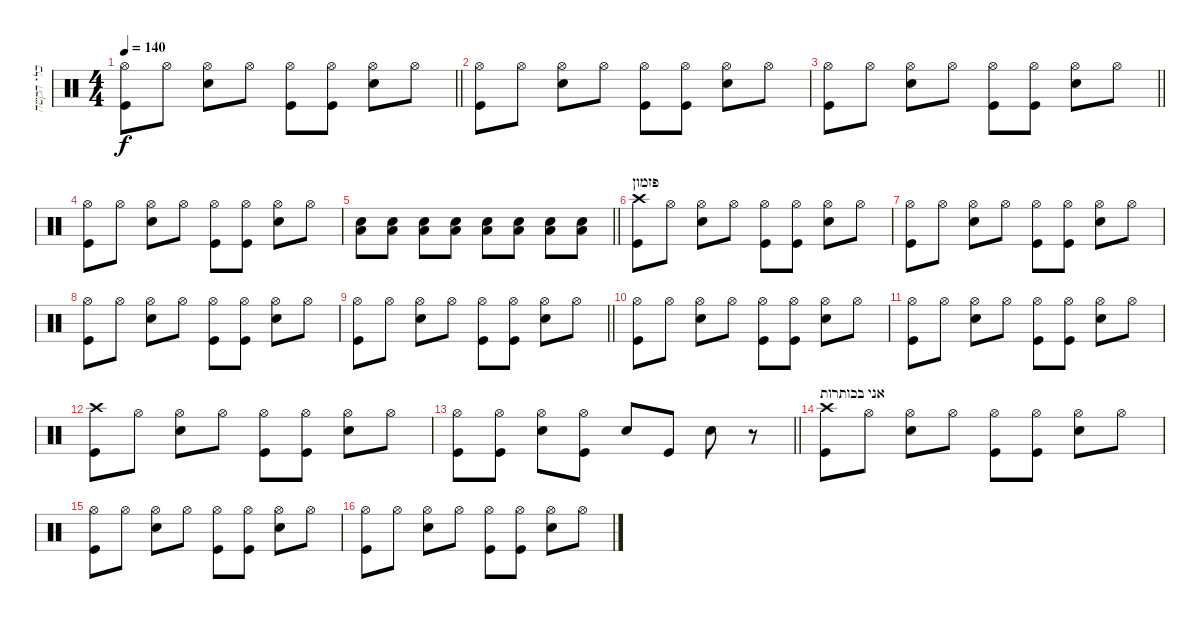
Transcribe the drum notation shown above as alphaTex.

\track ("כלי הקשה" "כלי הקשה") {instrument percussion}
\staff {score}
\articulation defaults
\ts (4 4)
\tempo 140
\clef neutral
\barLineRight lightlight
\ks c
("Kick (hit)" "Hi-Hat (open)").8{dy f} "Hi-Hat (open)".8 ("Snare (hit) 2" "Hi-Hat (open)").8 "Hi-Hat (open)".8 ("Kick (hit)" "Hi-Hat (open)").8 ("Kick (hit)" "Hi-Hat (open)").8 ("Snare (hit) 2" "Hi-Hat (open)").8 "Hi-Hat (open)".8 |
("Kick (hit)" "Hi-Hat (open)").8 "Hi-Hat (open)".8 ("Snare (hit) 2" "Hi-Hat (open)").8 "Hi-Hat (open)".8 ("Kick (hit)" "Hi-Hat (open)").8 ("Kick (hit)" "Hi-Hat (open)").8 ("Snare (hit) 2" "Hi-Hat (open)").8 "Hi-Hat (open)".8 |
\barLineRight lightlight
("Kick (hit)" "Hi-Hat (open)").8 "Hi-Hat (open)".8 ("Snare (hit) 2" "Hi-Hat (open)").8 "Hi-Hat (open)".8 ("Kick (hit)" "Hi-Hat (open)").8 ("Kick (hit)" "Hi-Hat (open)").8 ("Snare (hit) 2" "Hi-Hat (open)").8 "Hi-Hat (open)".8 |
("Kick (hit)" "Hi-Hat (open)").8 "Hi-Hat (open)".8 ("Snare (hit) 2" "Hi-Hat (open)").8 "Hi-Hat (open)".8 ("Kick (hit)" "Hi-Hat (open)").8 ("Kick (hit)" "Hi-Hat (open)").8 ("Snare (hit) 2" "Hi-Hat (open)").8 "Hi-Hat (open)".8 |
\barLineRight lightlight
("Low Floor Tom (hit)" "Snare (hit) 2").8 ("Low Floor Tom (hit)" "Snare (hit) 2").8 ("Low Floor Tom (hit)" "Snare (hit) 2").8 ("Low Floor Tom (hit)" "Snare (hit) 2").8 ("Low Floor Tom (hit)" "Snare (hit) 2").8 ("Low Floor Tom (hit)" "Snare (hit) 2").8 ("Low Floor Tom (hit)" "Snare (hit) 2").8 ("Low Floor Tom (hit)" "Snare (hit) 2").8 |
\section ("" "פזמון")
("Kick (hit)" "Crash high (hit)").8 "Hi-Hat (open)".8 ("Snare (hit) 2" "Hi-Hat (open)").8 "Hi-Hat (open)".8 ("Kick (hit)" "Hi-Hat (open)").8 ("Kick (hit)" "Hi-Hat (open)").8 ("Snare (hit) 2" "Hi-Hat (open)").8 "Hi-Hat (open)".8 |
("Kick (hit)" "Hi-Hat (open)").8 "Hi-Hat (open)".8 ("Snare (hit) 2" "Hi-Hat (open)").8 "Hi-Hat (open)".8 ("Kick (hit)" "Hi-Hat (open)").8 ("Kick (hit)" "Hi-Hat (open)").8 ("Snare (hit) 2" "Hi-Hat (open)").8 "Hi-Hat (open)".8 |
("Kick (hit)" "Hi-Hat (open)").8 "Hi-Hat (open)".8 ("Snare (hit) 2" "Hi-Hat (open)").8 "Hi-Hat (open)".8 ("Kick (hit)" "Hi-Hat (open)").8 ("Kick (hit)" "Hi-Hat (open)").8 ("Snare (hit) 2" "Hi-Hat (open)").8 "Hi-Hat (open)".8 |
\barLineRight lightlight
("Kick (hit)" "Hi-Hat (open)").8 "Hi-Hat (open)".8 ("Snare (hit) 2" "Hi-Hat (open)").8 "Hi-Hat (open)".8 ("Kick (hit)" "Hi-Hat (open)").8 ("Kick (hit)" "Hi-Hat (open)").8 ("Snare (hit) 2" "Hi-Hat (open)").8 "Hi-Hat (open)".8 |
("Kick (hit)" "Hi-Hat (open)").8 "Hi-Hat (open)".8 ("Snare (hit) 2" "Hi-Hat (open)").8 "Hi-Hat (open)".8 ("Kick (hit)" "Hi-Hat (open)").8 ("Kick (hit)" "Hi-Hat (open)").8 ("Snare (hit) 2" "Hi-Hat (open)").8 "Hi-Hat (open)".8 |
("Kick (hit)" "Hi-Hat (open)").8 "Hi-Hat (open)".8 ("Snare (hit) 2" "Hi-Hat (open)").8 "Hi-Hat (open)".8 ("Kick (hit)" "Hi-Hat (open)").8 ("Kick (hit)" "Hi-Hat (open)").8 ("Snare (hit) 2" "Hi-Hat (open)").8 "Hi-Hat (open)".8 |
("Kick (hit)" "Crash high (hit)").8 "Hi-Hat (open)".8 ("Snare (hit) 2" "Hi-Hat (open)").8 "Hi-Hat (open)".8 ("Kick (hit)" "Hi-Hat (open)").8 ("Kick (hit)" "Hi-Hat (open)").8 ("Snare (hit) 2" "Hi-Hat (open)").8 "Hi-Hat (open)".8 |
\barLineRight lightlight
("Kick (hit)" "Hi-Hat (open)").8 ("Kick (hit)" "Hi-Hat (open)").8 ("Snare (hit) 2" "Hi-Hat (open)").8 ("Kick (hit)" "Hi-Hat (open)").8 "Snare (hit) 2".8 "Kick (hit)".8 "Snare (hit) 2".8 r.8 |
\section ("" "אני בכותרות")
("Kick (hit)" "Crash high (hit)").8 "Hi-Hat (open)".8 ("Snare (hit) 2" "Hi-Hat (open)").8 "Hi-Hat (open)".8 ("Kick (hit)" "Hi-Hat (open)").8 ("Kick (hit)" "Hi-Hat (open)").8 ("Snare (hit) 2" "Hi-Hat (open)").8 "Hi-Hat (open)".8 |
("Kick (hit)" "Hi-Hat (open)").8 "Hi-Hat (open)".8 ("Snare (hit) 2" "Hi-Hat (open)").8 "Hi-Hat (open)".8 ("Kick (hit)" "Hi-Hat (open)").8 ("Kick (hit)" "Hi-Hat (open)").8 ("Snare (hit) 2" "Hi-Hat (open)").8 "Hi-Hat (open)".8 |
("Kick (hit)" "Hi-Hat (open)").8 "Hi-Hat (open)".8 ("Snare (hit) 2" "Hi-Hat (open)").8 "Hi-Hat (open)".8 ("Kick (hit)" "Hi-Hat (open)").8 ("Kick (hit)" "Hi-Hat (open)").8 ("Snare (hit) 2" "Hi-Hat (open)").8 "Hi-Hat (open)".8
